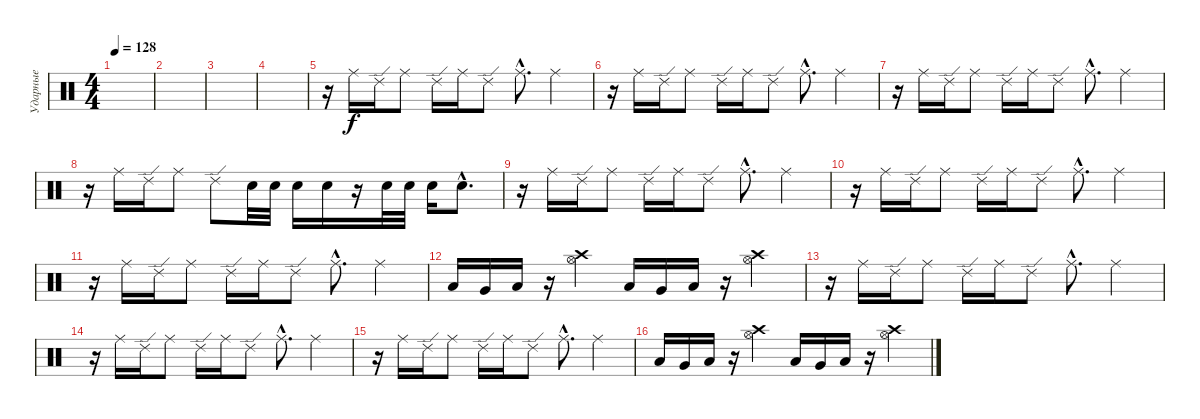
\track ("Ударные" "Ударные") {instrument percussion}
\staff {score}
\articulation defaults
\ts (4 4)
\tempo 128
\clef neutral
\ks c
|
|
|
|
r.16 "Ride (middle)".16 "Ride (edge) 2".16 "Ride (middle)".8 "Ride (edge) 2".16 "Ride (middle)".16 "Ride (edge) 2".8 "Ride (middle)"{hac}.8{d} "Ride (middle)".4 |
r.16 "Ride (middle)".16 "Ride (edge) 2".16 "Ride (middle)".8 "Ride (edge) 2".16 "Ride (middle)".16 "Ride (edge) 2".8 "Ride (middle)"{hac}.8{d} "Ride (middle)".4 |
r.16 "Ride (middle)".16 "Ride (edge) 2".16 "Ride (middle)".8 "Ride (edge) 2".16 "Ride (middle)".16 "Ride (edge) 2".8 "Ride (middle)"{hac}.8{d} "Ride (middle)".4 |
r.16 "Ride (middle)".16 "Ride (edge) 2".16 "Ride (middle)".8 "Ride (edge) 2".8 "Snare (hit) 2".32 "Snare (hit) 2".32 "Snare (hit) 2".16 "Snare (hit) 2".16 r.16 "Snare (hit) 2".32 "Snare (hit) 2".32 "Snare (hit) 2".16 "Snare (hit) 2"{hac}.8{d} |
r.16 "Ride (middle)".16 "Ride (edge) 2".16 "Ride (middle)".8 "Ride (edge) 2".16 "Ride (middle)".16 "Ride (edge) 2".8 "Ride (middle)"{hac}.8{d} "Ride (middle)".4 |
r.16 "Ride (middle)".16 "Ride (edge) 2".16 "Ride (middle)".8 "Ride (edge) 2".16 "Ride (middle)".16 "Ride (edge) 2".8 "Ride (middle)"{hac}.8{d} "Ride (middle)".4 |
r.16 "Ride (middle)".16 "Ride (edge) 2".16 "Ride (middle)".8 "Ride (edge) 2".16 "Ride (middle)".16 "Ride (edge) 2".8 "Ride (middle)"{hac}.8{d} "Ride (middle)".4 |
"Low Floor Tom (hit)".16 "Very Low Tom (hit)".16 "Low Floor Tom (hit)".16 r.16 ("Hi-Hat (open)" "Crash high (hit)").4 "Low Floor Tom (hit)".16 "Very Low Tom (hit)".16 "Low Floor Tom (hit)".16 r.16 ("Hi-Hat (open)" "Crash high (hit)").4 |
r.16 "Ride (middle)".16 "Ride (edge) 2".16 "Ride (middle)".8 "Ride (edge) 2".16 "Ride (middle)".16 "Ride (edge) 2".8 "Ride (middle)"{hac}.8{d} "Ride (middle)".4 |
r.16 "Ride (middle)".16 "Ride (edge) 2".16 "Ride (middle)".8 "Ride (edge) 2".16 "Ride (middle)".16 "Ride (edge) 2".8 "Ride (middle)"{hac}.8{d} "Ride (middle)".4 |
r.16 "Ride (middle)".16 "Ride (edge) 2".16 "Ride (middle)".8 "Ride (edge) 2".16 "Ride (middle)".16 "Ride (edge) 2".8 "Ride (middle)"{hac}.8{d} "Ride (middle)".4 |
"Low Floor Tom (hit)".16 "Very Low Tom (hit)".16 "Low Floor Tom (hit)".16 r.16 ("Hi-Hat (open)" "Crash high (hit)").4 "Low Floor Tom (hit)".16 "Very Low Tom (hit)".16 "Low Floor Tom (hit)".16 r.16 ("Hi-Hat (open)" "Crash high (hit)").4
